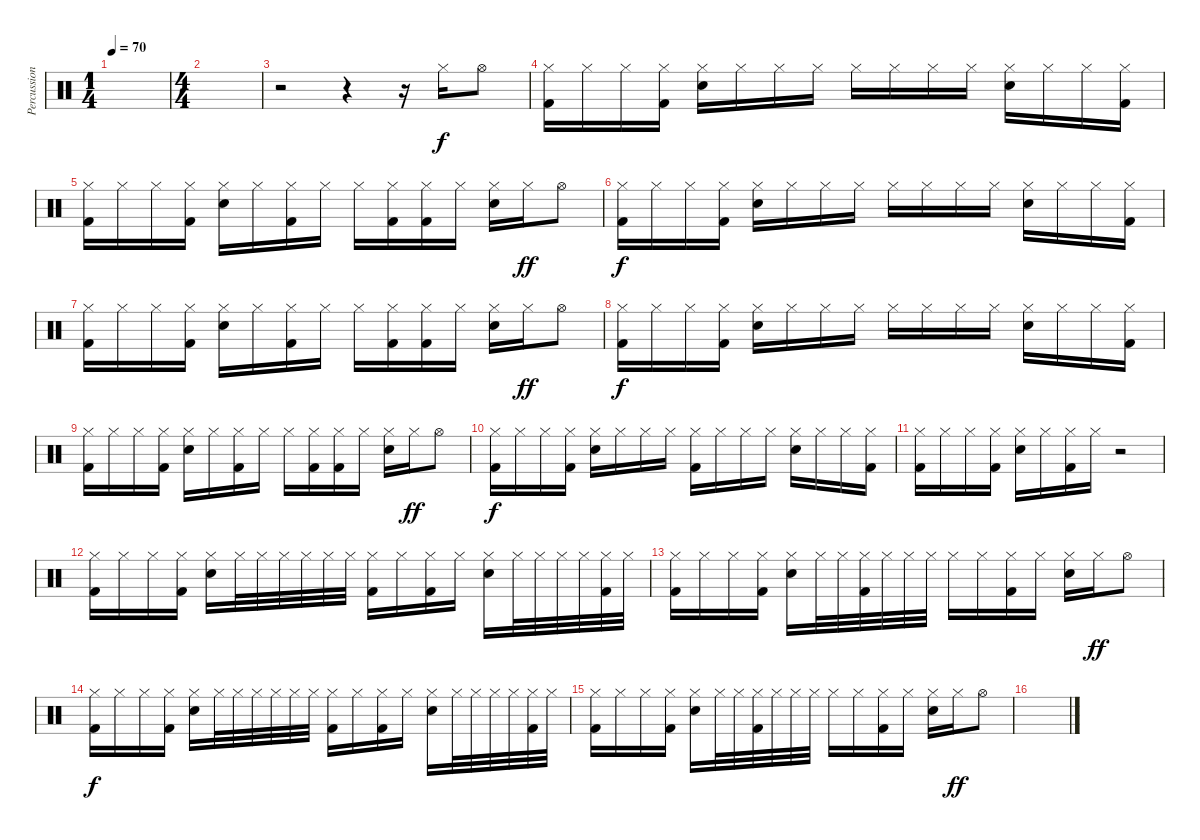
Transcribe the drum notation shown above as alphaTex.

\track ("Percussions" "Percussion") {instrument percussion}
\staff {score}
\articulation defaults
\ts (1 4)
\tempo 70
\clef neutral
\ks c
|
\ts (4 4)
\section ("" "")
|
r.2 r.4 r.16 "Hi-Hat (closed)".16 "Hi-Hat (open)".8 |
("Kick (hit) 2" "Hi-Hat (closed)").16{dy f} "Hi-Hat (closed)".16 "Hi-Hat (closed)".16 ("Kick (hit) 2" "Hi-Hat (closed)").16 ("Electric Snare (hit)" "Hi-Hat (closed)").16 "Hi-Hat (closed)".16 "Hi-Hat (closed)".16 "Hi-Hat (closed)".16 "Hi-Hat (closed)".16 "Hi-Hat (closed)".16 "Hi-Hat (closed)".16 "Hi-Hat (closed)".16 ("Electric Snare (hit)" "Hi-Hat (closed)").16 "Hi-Hat (closed)".16 "Hi-Hat (closed)".16 ("Kick (hit) 2" "Hi-Hat (closed)").16 |
("Kick (hit) 2" "Hi-Hat (closed)").16 "Hi-Hat (closed)".16 "Hi-Hat (closed)".16 ("Kick (hit) 2" "Hi-Hat (closed)").16 ("Electric Snare (hit)" "Hi-Hat (closed)").16 "Hi-Hat (closed)".16 ("Kick (hit) 2" "Hi-Hat (closed)").16 "Hi-Hat (closed)".16 "Hi-Hat (closed)".16 ("Kick (hit) 2" "Hi-Hat (closed)").16 ("Kick (hit) 2" "Hi-Hat (closed)").16 "Hi-Hat (closed)".16 ("Electric Snare (hit)" "Hi-Hat (closed)").16 "Hi-Hat (closed)".16{dy ff} "Hi-Hat (open)".8 |
\section ("" "")
("Kick (hit) 2" "Hi-Hat (closed)").16{dy f} "Hi-Hat (closed)".16 "Hi-Hat (closed)".16 ("Kick (hit) 2" "Hi-Hat (closed)").16 ("Electric Snare (hit)" "Hi-Hat (closed)").16 "Hi-Hat (closed)".16 "Hi-Hat (closed)".16 "Hi-Hat (closed)".16 "Hi-Hat (closed)".16 "Hi-Hat (closed)".16 "Hi-Hat (closed)".16 "Hi-Hat (closed)".16 ("Electric Snare (hit)" "Hi-Hat (closed)").16 "Hi-Hat (closed)".16 "Hi-Hat (closed)".16 ("Kick (hit) 2" "Hi-Hat (closed)").16 |
("Kick (hit) 2" "Hi-Hat (closed)").16 "Hi-Hat (closed)".16 "Hi-Hat (closed)".16 ("Kick (hit) 2" "Hi-Hat (closed)").16 ("Electric Snare (hit)" "Hi-Hat (closed)").16 "Hi-Hat (closed)".16 ("Kick (hit) 2" "Hi-Hat (closed)").16 "Hi-Hat (closed)".16 "Hi-Hat (closed)".16 ("Kick (hit) 2" "Hi-Hat (closed)").16 ("Kick (hit) 2" "Hi-Hat (closed)").16 "Hi-Hat (closed)".16 ("Electric Snare (hit)" "Hi-Hat (closed)").16 "Hi-Hat (closed)".16{dy ff} "Hi-Hat (open)".8 |
("Kick (hit) 2" "Hi-Hat (closed)").16{dy f} "Hi-Hat (closed)".16 "Hi-Hat (closed)".16 ("Kick (hit) 2" "Hi-Hat (closed)").16 ("Electric Snare (hit)" "Hi-Hat (closed)").16 "Hi-Hat (closed)".16 "Hi-Hat (closed)".16 "Hi-Hat (closed)".16 "Hi-Hat (closed)".16 "Hi-Hat (closed)".16 "Hi-Hat (closed)".16 "Hi-Hat (closed)".16 ("Electric Snare (hit)" "Hi-Hat (closed)").16 "Hi-Hat (closed)".16 "Hi-Hat (closed)".16 ("Kick (hit) 2" "Hi-Hat (closed)").16 |
("Kick (hit) 2" "Hi-Hat (closed)").16 "Hi-Hat (closed)".16 "Hi-Hat (closed)".16 ("Kick (hit) 2" "Hi-Hat (closed)").16 ("Electric Snare (hit)" "Hi-Hat (closed)").16 "Hi-Hat (closed)".16 ("Kick (hit) 2" "Hi-Hat (closed)").16 "Hi-Hat (closed)".16 "Hi-Hat (closed)".16 ("Kick (hit) 2" "Hi-Hat (closed)").16 ("Kick (hit) 2" "Hi-Hat (closed)").16 "Hi-Hat (closed)".16 ("Electric Snare (hit)" "Hi-Hat (closed)").16 "Hi-Hat (closed)".16{dy ff} "Hi-Hat (open)".8 |
\section ("" "")
("Kick (hit) 2" "Hi-Hat (closed)").16{dy f} "Hi-Hat (closed)".16 "Hi-Hat (closed)".16 ("Kick (hit) 2" "Hi-Hat (closed)").16 ("Electric Snare (hit)" "Hi-Hat (closed)").16 "Hi-Hat (closed)".16 "Hi-Hat (closed)".16 "Hi-Hat (closed)".16 ("Kick (hit) 2" "Hi-Hat (closed)").16 "Hi-Hat (closed)".16 "Hi-Hat (closed)".16 "Hi-Hat (closed)".16 ("Electric Snare (hit)" "Hi-Hat (closed)").16 "Hi-Hat (closed)".16 "Hi-Hat (closed)".16 ("Kick (hit) 2" "Hi-Hat (closed)").16 |
("Kick (hit) 2" "Hi-Hat (closed)").16 "Hi-Hat (closed)".16 "Hi-Hat (closed)".16 ("Kick (hit) 2" "Hi-Hat (closed)").16 ("Electric Snare (hit)" "Hi-Hat (closed)").16 "Hi-Hat (closed)".16 ("Kick (hit) 2" "Hi-Hat (closed)").16 "Hi-Hat (closed)".16 r.2 |
\section ("" "")
("Kick (hit) 2" "Hi-Hat (closed)").16{balance 8} "Hi-Hat (closed)".16 "Hi-Hat (closed)".16 ("Kick (hit) 2" "Hi-Hat (closed)").16 ("Electric Snare (hit)" "Hi-Hat (closed)").16 "Hi-Hat (closed)".32 "Hi-Hat (closed)".32 "Hi-Hat (closed)".32 "Hi-Hat (closed)".32 "Hi-Hat (closed)".32 "Hi-Hat (closed)".32 ("Kick (hit) 2" "Hi-Hat (closed)").16 "Hi-Hat (closed)".16 ("Kick (hit) 2" "Hi-Hat (closed)").16 "Hi-Hat (closed)".16 ("Electric Snare (hit)" "Hi-Hat (closed)").16 "Hi-Hat (closed)".32 "Hi-Hat (closed)".32 "Hi-Hat (closed)".32 "Hi-Hat (closed)".32 ("Kick (hit) 2" "Hi-Hat (closed)").32 "Hi-Hat (closed)".32 |
("Kick (hit) 2" "Hi-Hat (closed)").16 "Hi-Hat (closed)".16 "Hi-Hat (closed)".16 ("Kick (hit) 2" "Hi-Hat (closed)").16 ("Electric Snare (hit)" "Hi-Hat (closed)").16 "Hi-Hat (closed)".32 "Hi-Hat (closed)".32 ("Kick (hit) 2" "Hi-Hat (closed)").32 "Hi-Hat (closed)".32 "Hi-Hat (closed)".32 "Hi-Hat (closed)".32 "Hi-Hat (closed)".16 "Hi-Hat (closed)".16 ("Kick (hit) 2" "Hi-Hat (closed)").16 "Hi-Hat (closed)".16 ("Electric Snare (hit)" "Hi-Hat (closed)").16 "Hi-Hat (closed)".16{dy ff} "Hi-Hat (open)".8 |
("Kick (hit) 2" "Hi-Hat (closed)").16{dy f} "Hi-Hat (closed)".16 "Hi-Hat (closed)".16 ("Kick (hit) 2" "Hi-Hat (closed)").16 ("Electric Snare (hit)" "Hi-Hat (closed)").16 "Hi-Hat (closed)".32 "Hi-Hat (closed)".32 "Hi-Hat (closed)".32 "Hi-Hat (closed)".32 "Hi-Hat (closed)".32 "Hi-Hat (closed)".32 ("Kick (hit) 2" "Hi-Hat (closed)").16 "Hi-Hat (closed)".16 ("Kick (hit) 2" "Hi-Hat (closed)").16 "Hi-Hat (closed)".16 ("Electric Snare (hit)" "Hi-Hat (closed)").16 "Hi-Hat (closed)".32 "Hi-Hat (closed)".32 "Hi-Hat (closed)".32 "Hi-Hat (closed)".32 ("Kick (hit) 2" "Hi-Hat (closed)").32 "Hi-Hat (closed)".32 |
("Kick (hit) 2" "Hi-Hat (closed)").16 "Hi-Hat (closed)".16 "Hi-Hat (closed)".16 ("Kick (hit) 2" "Hi-Hat (closed)").16 ("Electric Snare (hit)" "Hi-Hat (closed)").16 "Hi-Hat (closed)".32 "Hi-Hat (closed)".32 ("Kick (hit) 2" "Hi-Hat (closed)").32 "Hi-Hat (closed)".32 "Hi-Hat (closed)".32 "Hi-Hat (closed)".32 "Hi-Hat (closed)".16 "Hi-Hat (closed)".16 ("Kick (hit) 2" "Hi-Hat (closed)").16 "Hi-Hat (closed)".16 ("Electric Snare (hit)" "Hi-Hat (closed)").16 "Hi-Hat (closed)".16{dy ff} "Hi-Hat (open)".8 |
\section ("" "")
